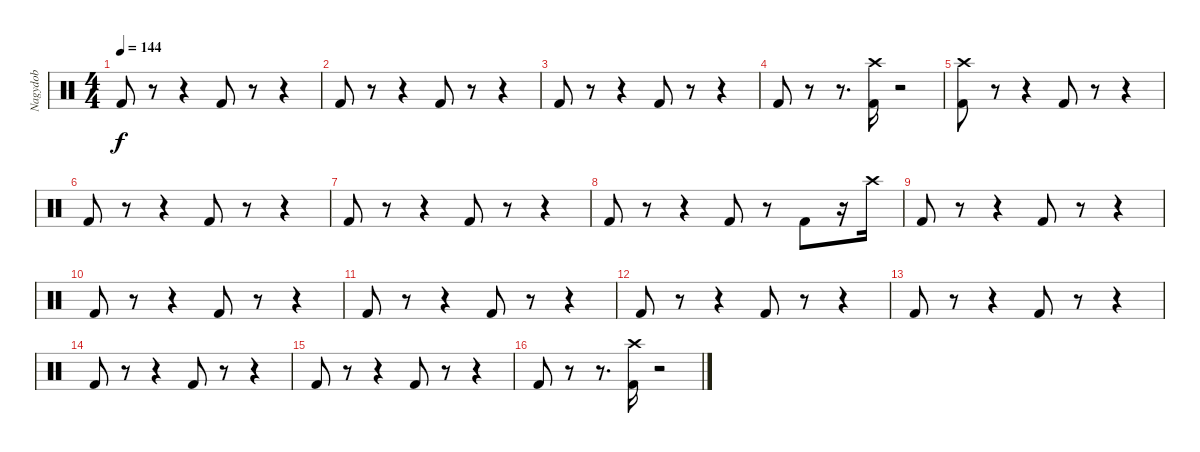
\track ("Nagydob" "Nagydob") {instrument percussion}
\staff {score}
\articulation defaults
\ts (4 4)
\tempo 144
\clef neutral
\ks c "Kick (hit) 2".8{dy f}
r.8 r.4 "Kick (hit) 2".8 r.8 r.4 |
"Kick (hit) 2".8 r.8 r.4 "Kick (hit) 2".8 r.8 r.4 |
"Kick (hit) 2".8 r.8 r.4 "Kick (hit) 2".8 r.8 r.4 |
"Kick (hit) 2".8 r.8 r.8{d} ("Kick (hit) 2" "Crash high (hit)").16 r.2 |
("Kick (hit) 2" "Crash high (hit)").8 r.8 r.4 "Kick (hit) 2".8 r.8 r.4 |
"Kick (hit) 2".8 r.8 r.4 "Kick (hit) 2".8 r.8 r.4 |
"Kick (hit) 2".8 r.8 r.4 "Kick (hit) 2".8 r.8 r.4 |
"Kick (hit) 2".8 r.8 r.4 "Kick (hit) 2".8 r.8 "Kick (hit) 2".8 r.16 "Crash high (hit)".16 |
"Kick (hit) 2".8 r.8 r.4 "Kick (hit) 2".8 r.8 r.4 |
"Kick (hit) 2".8 r.8 r.4 "Kick (hit) 2".8 r.8 r.4 |
"Kick (hit) 2".8 r.8 r.4 "Kick (hit) 2".8 r.8 r.4 |
"Kick (hit) 2".8 r.8 r.4 "Kick (hit) 2".8 r.8 r.4 |
"Kick (hit) 2".8 r.8 r.4 "Kick (hit) 2".8 r.8 r.4 |
"Kick (hit) 2".8 r.8 r.4 "Kick (hit) 2".8 r.8 r.4 |
"Kick (hit) 2".8 r.8 r.4 "Kick (hit) 2".8 r.8 r.4 |
"Kick (hit) 2".8 r.8 r.8{d} ("Kick (hit) 2" "Crash high (hit)").16 r.2
